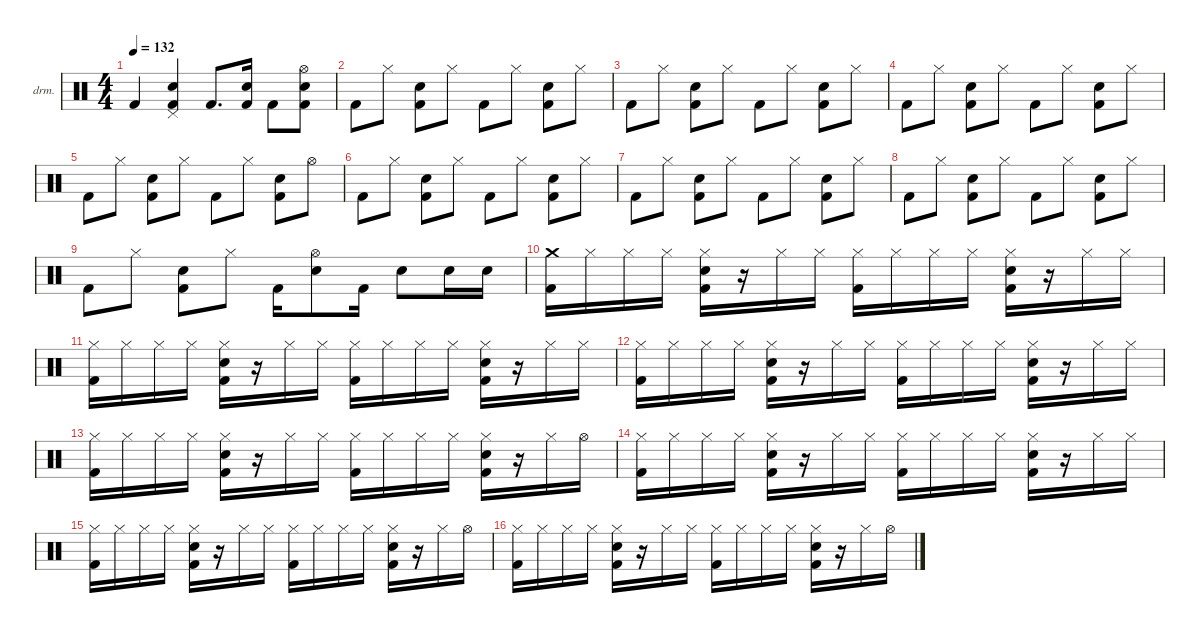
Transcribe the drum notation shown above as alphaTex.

\defaultSystemsLayout 4
\hideDynamics
\bracketExtendMode nobrackets
\firstSystemTrackNameOrientation horizontal
\otherSystemsTrackNameOrientation horizontal
\track ("Drumkit" "drm.") {instrument percussion}
\staff {score}
\articulation defaults
\ts (4 4)
\tempo 132
\clef neutral
\ks c "Kick (hit) 2".4{dy mf beam Up}
("Kick (hit) 2" "Pedal Hi-Hat (hit)" "Snare (hit) 2").4{beam Up} "Kick (hit) 2".8{d beam Up} ("Kick (hit) 2" "Snare (hit) 2").16{beam Up} "Kick (hit) 2".8{beam Down} ("Kick (hit) 2" "Snare (hit) 2" "Hi-Hat (open)").8{beam Down} |
"Kick (hit) 2".8{beam Down} "Hi-Hat (closed)".8{beam Down} ("Kick (hit) 2" "Snare (hit) 2").8{beam Down} "Hi-Hat (closed)".8{beam Down} "Kick (hit) 2".8{beam Down} "Hi-Hat (closed)".8{beam Down} ("Kick (hit) 2" "Snare (hit) 2").8{beam Down} "Hi-Hat (closed)".8{beam Down} |
"Kick (hit) 2".8{beam Down} "Hi-Hat (closed)".8{beam Down} ("Kick (hit) 2" "Snare (hit) 2").8{beam Down} "Hi-Hat (closed)".8{beam Down} "Kick (hit) 2".8{beam Down} "Hi-Hat (closed)".8{beam Down} ("Kick (hit) 2" "Snare (hit) 2").8{beam Down} "Hi-Hat (closed)".8{beam Down} |
"Kick (hit) 2".8{beam Down} "Hi-Hat (closed)".8{beam Down} ("Kick (hit) 2" "Snare (hit) 2").8{beam Down} "Hi-Hat (closed)".8{beam Down} "Kick (hit) 2".8{beam Down} "Hi-Hat (closed)".8{beam Down} ("Kick (hit) 2" "Snare (hit) 2").8{beam Down} "Hi-Hat (closed)".8{beam Down} |
"Kick (hit) 2".8{beam Down} "Hi-Hat (closed)".8{beam Down} ("Kick (hit) 2" "Snare (hit) 2").8{beam Down} "Hi-Hat (closed)".8{beam Down} "Kick (hit) 2".8{beam Down} "Hi-Hat (closed)".8{beam Down} ("Kick (hit) 2" "Snare (hit) 2").8{beam Down} "Hi-Hat (open)".8{beam Down} |
"Kick (hit) 2".8{beam Down} "Hi-Hat (closed)".8{beam Down} ("Kick (hit) 2" "Snare (hit) 2").8{beam Down} "Hi-Hat (closed)".8{beam Down} "Kick (hit) 2".8{beam Down} "Hi-Hat (closed)".8{beam Down} ("Kick (hit) 2" "Snare (hit) 2").8{beam Down} "Hi-Hat (closed)".8{beam Down} |
"Kick (hit) 2".8{beam Down} "Hi-Hat (closed)".8{beam Down} ("Kick (hit) 2" "Snare (hit) 2").8{beam Down} "Hi-Hat (closed)".8{beam Down} "Kick (hit) 2".8{beam Down} "Hi-Hat (closed)".8{beam Down} ("Kick (hit) 2" "Snare (hit) 2").8{beam Down} "Hi-Hat (closed)".8{beam Down} |
"Kick (hit) 2".8{beam Down} "Hi-Hat (closed)".8{beam Down} ("Kick (hit) 2" "Snare (hit) 2").8{beam Down} "Hi-Hat (closed)".8{beam Down} "Kick (hit) 2".8{beam Down} "Hi-Hat (closed)".8{beam Down} ("Kick (hit) 2" "Snare (hit) 2").8{beam Down} "Hi-Hat (closed)".8{beam Down} |
"Kick (hit) 2".8{beam Down} "Hi-Hat (closed)".8{beam Down} ("Kick (hit) 2" "Snare (hit) 2").8{beam Down} "Hi-Hat (closed)".8{beam Down} "Kick (hit) 2".16{beam Down} ("Snare (hit) 2" "Hi-Hat (open)").8{beam Down} "Kick (hit) 2".16{beam Down} "Snare (hit) 2".8{beam Down} "Snare (hit) 2".16{beam Down} "Snare (hit) 2".16{beam Down} |
("Kick (hit) 2" "Crash medium (hit)").16{beam Down} "Hi-Hat (closed)".16{beam Down} "Hi-Hat (closed)".16{beam Down} "Hi-Hat (closed)".16{beam Down} ("Hi-Hat (closed)" "Kick (hit) 2" "Snare (hit) 2").16{beam Down} r.16{beam Down} "Hi-Hat (closed)".16{beam Down} "Hi-Hat (closed)".16{beam Down} ("Hi-Hat (closed)" "Kick (hit) 2").16{beam Down} "Hi-Hat (closed)".16{beam Down} "Hi-Hat (closed)".16{beam Down} "Hi-Hat (closed)".16{beam Down} ("Hi-Hat (closed)" "Kick (hit) 2" "Snare (hit) 2").16{beam Down} r.16{beam Down} "Hi-Hat (closed)".16{beam Down} "Hi-Hat (closed)".16{beam Down} |
("Kick (hit) 2" "Hi-Hat (closed)").16{beam Down} "Hi-Hat (closed)".16{beam Down} "Hi-Hat (closed)".16{beam Down} "Hi-Hat (closed)".16{beam Down} ("Hi-Hat (closed)" "Kick (hit) 2" "Snare (hit) 2").16{beam Down} r.16{beam Down} "Hi-Hat (closed)".16{beam Down} "Hi-Hat (closed)".16{beam Down} ("Hi-Hat (closed)" "Kick (hit) 2").16{beam Down} "Hi-Hat (closed)".16{beam Down} "Hi-Hat (closed)".16{beam Down} "Hi-Hat (closed)".16{beam Down} ("Hi-Hat (closed)" "Kick (hit) 2" "Snare (hit) 2").16{beam Down} r.16{beam Down} "Hi-Hat (closed)".16{beam Down} "Hi-Hat (closed)".16{beam Down} |
("Kick (hit) 2" "Hi-Hat (closed)").16{beam Down} "Hi-Hat (closed)".16{beam Down} "Hi-Hat (closed)".16{beam Down} "Hi-Hat (closed)".16{beam Down} ("Hi-Hat (closed)" "Kick (hit) 2" "Snare (hit) 2").16{beam Down} r.16{beam Down} "Hi-Hat (closed)".16{beam Down} "Hi-Hat (closed)".16{beam Down} ("Hi-Hat (closed)" "Kick (hit) 2").16{beam Down} "Hi-Hat (closed)".16{beam Down} "Hi-Hat (closed)".16{beam Down} "Hi-Hat (closed)".16{beam Down} ("Hi-Hat (closed)" "Kick (hit) 2" "Snare (hit) 2").16{beam Down} r.16{beam Down} "Hi-Hat (closed)".16{beam Down} "Hi-Hat (closed)".16{beam Down} |
("Kick (hit) 2" "Hi-Hat (closed)").16{beam Down} "Hi-Hat (closed)".16{beam Down} "Hi-Hat (closed)".16{beam Down} "Hi-Hat (closed)".16{beam Down} ("Hi-Hat (closed)" "Kick (hit) 2" "Snare (hit) 2").16{beam Down} r.16{beam Down} "Hi-Hat (closed)".16{beam Down} "Hi-Hat (closed)".16{beam Down} ("Hi-Hat (closed)" "Kick (hit) 2").16{beam Down} "Hi-Hat (closed)".16{beam Down} "Hi-Hat (closed)".16{beam Down} "Hi-Hat (closed)".16{beam Down} ("Hi-Hat (closed)" "Kick (hit) 2" "Snare (hit) 2").16{beam Down} r.16{beam Down} "Hi-Hat (closed)".16{beam Down} "Hi-Hat (open)".16{beam Down} |
("Kick (hit) 2" "Hi-Hat (closed)").16{beam Down} "Hi-Hat (closed)".16{beam Down} "Hi-Hat (closed)".16{beam Down} "Hi-Hat (closed)".16{beam Down} ("Hi-Hat (closed)" "Kick (hit) 2" "Snare (hit) 2").16{beam Down} r.16{beam Down} "Hi-Hat (closed)".16{beam Down} "Hi-Hat (closed)".16{beam Down} ("Hi-Hat (closed)" "Kick (hit) 2").16{beam Down} "Hi-Hat (closed)".16{beam Down} "Hi-Hat (closed)".16{beam Down} "Hi-Hat (closed)".16{beam Down} ("Hi-Hat (closed)" "Kick (hit) 2" "Snare (hit) 2").16{beam Down} r.16{beam Down} "Hi-Hat (closed)".16{beam Down} "Hi-Hat (closed)".16{beam Down} |
("Kick (hit) 2" "Hi-Hat (closed)").16{beam Down} "Hi-Hat (closed)".16{beam Down} "Hi-Hat (closed)".16{beam Down} "Hi-Hat (closed)".16{beam Down} ("Hi-Hat (closed)" "Kick (hit) 2" "Snare (hit) 2").16{beam Down} r.16{beam Down} "Hi-Hat (closed)".16{beam Down} "Hi-Hat (closed)".16{beam Down} ("Hi-Hat (closed)" "Kick (hit) 2").16{beam Down} "Hi-Hat (closed)".16{beam Down} "Hi-Hat (closed)".16{beam Down} "Hi-Hat (closed)".16{beam Down} ("Hi-Hat (closed)" "Kick (hit) 2" "Snare (hit) 2").16{beam Down} r.16{beam Down} "Hi-Hat (closed)".16{beam Down} "Hi-Hat (open)".16{beam Down} |
("Kick (hit) 2" "Hi-Hat (closed)").16{beam Down} "Hi-Hat (closed)".16{beam Down} "Hi-Hat (closed)".16{beam Down} "Hi-Hat (closed)".16{beam Down} ("Hi-Hat (closed)" "Kick (hit) 2" "Snare (hit) 2").16{beam Down} r.16{beam Down} "Hi-Hat (closed)".16{beam Down} "Hi-Hat (closed)".16{beam Down} ("Hi-Hat (closed)" "Kick (hit) 2").16{beam Down} "Hi-Hat (closed)".16{beam Down} "Hi-Hat (closed)".16{beam Down} "Hi-Hat (closed)".16{beam Down} ("Hi-Hat (closed)" "Kick (hit) 2" "Snare (hit) 2").16{beam Down} r.16{beam Down} "Hi-Hat (closed)".16{beam Down} "Hi-Hat (open)".16{beam Down}
